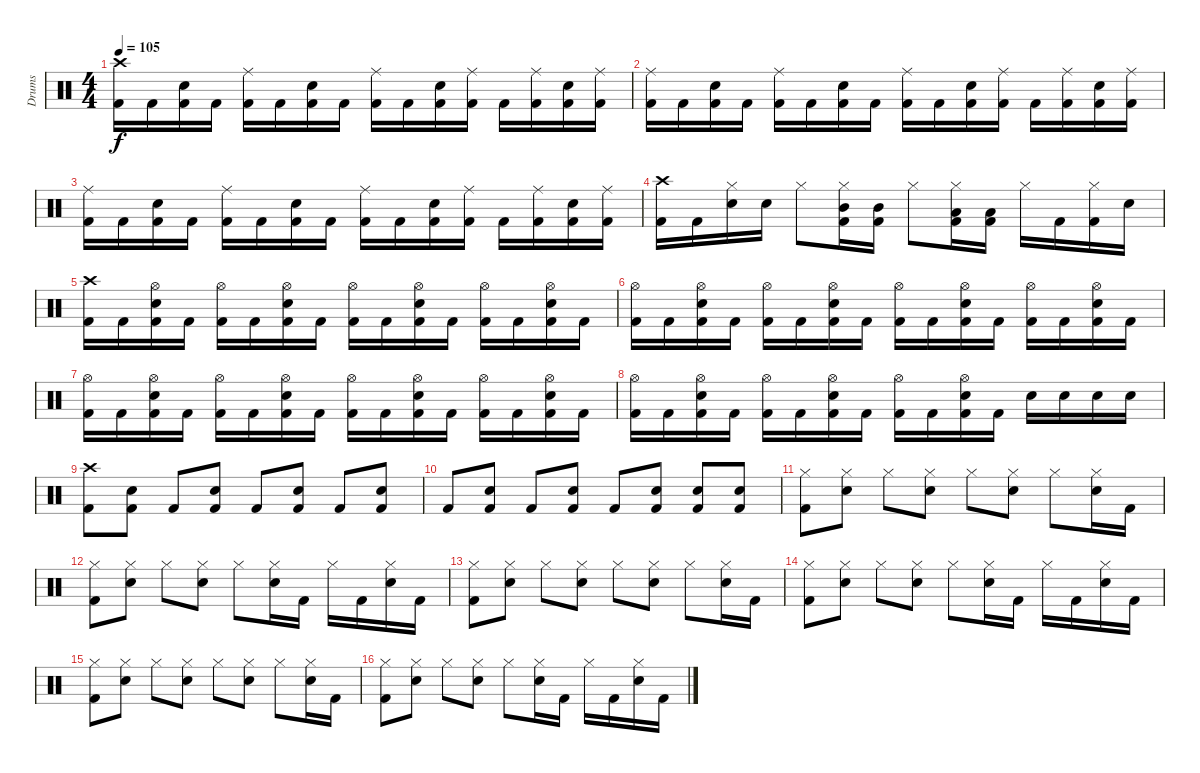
\track ("Drums" "Drums") {instrument percussion}
\staff {score}
\articulation defaults
\ts (4 4)
\tempo 105
\clef neutral
\ks c
("Crash high (hit)" "Kick (hit) 2").16{dy f} "Kick (hit) 2".16 ("Electric Snare (hit)" "Kick (hit) 2").16 "Kick (hit) 2".16 ("Ride (middle)" "Kick (hit) 2").16 "Kick (hit) 2".16 ("Electric Snare (hit)" "Kick (hit) 2").16 "Kick (hit) 2".16 ("Ride (middle)" "Kick (hit) 2").16 "Kick (hit) 2".16 ("Electric Snare (hit)" "Kick (hit) 2").16 ("Ride (middle)" "Kick (hit) 2").16 "Kick (hit) 2".16 ("Ride (middle)" "Kick (hit) 2").16 ("Electric Snare (hit)" "Kick (hit) 2").16 ("Ride (middle)" "Kick (hit) 2").16 |
("Ride (middle)" "Kick (hit) 2").16 "Kick (hit) 2".16 ("Electric Snare (hit)" "Kick (hit) 2").16 "Kick (hit) 2".16 ("Ride (middle)" "Kick (hit) 2").16 "Kick (hit) 2".16 ("Electric Snare (hit)" "Kick (hit) 2").16 "Kick (hit) 2".16 ("Ride (middle)" "Kick (hit) 2").16 "Kick (hit) 2".16 ("Electric Snare (hit)" "Kick (hit) 2").16 ("Ride (middle)" "Kick (hit) 2").16 "Kick (hit) 2".16 ("Ride (middle)" "Kick (hit) 2").16 ("Electric Snare (hit)" "Kick (hit) 2").16 ("Ride (middle)" "Kick (hit) 2").16 |
("Ride (middle)" "Kick (hit) 2").16 "Kick (hit) 2".16 ("Electric Snare (hit)" "Kick (hit) 2").16 "Kick (hit) 2".16 ("Ride (middle)" "Kick (hit) 2").16 "Kick (hit) 2".16 ("Electric Snare (hit)" "Kick (hit) 2").16 "Kick (hit) 2".16 ("Ride (middle)" "Kick (hit) 2").16 "Kick (hit) 2".16 ("Electric Snare (hit)" "Kick (hit) 2").16 ("Ride (middle)" "Kick (hit) 2").16 "Kick (hit) 2".16 ("Ride (middle)" "Kick (hit) 2").16 ("Electric Snare (hit)" "Kick (hit) 2").16 ("Ride (middle)" "Kick (hit) 2").16 |
("Crash high (hit)" "Kick (hit) 2").16 "Kick (hit) 2".16 ("Hi-Hat (closed)" "Electric Snare (hit)").16 "Electric Snare (hit)".16 "Hi-Hat (closed)".8 ("Hi-Hat (closed)" "Mid Tom (hit)" "Kick (hit) 2").16 ("Mid Tom (hit)" "Kick (hit) 2").16 "Hi-Hat (closed)".8 ("Hi-Hat (closed)" "Low Tom (hit)" "Kick (hit) 2").16 ("Low Tom (hit)" "Kick (hit) 2").16 "Hi-Hat (closed)".16 "Kick (hit) 2".16 ("Hi-Hat (closed)" "Kick (hit) 2").16 "Electric Snare (hit)".16 |
("Crash high (hit)" "Kick (hit) 2").16 "Kick (hit) 2".16 ("Hi-Hat (open)" "Electric Snare (hit)" "Kick (hit) 2").16 "Kick (hit) 2".16 ("Hi-Hat (open)" "Kick (hit) 2").16 "Kick (hit) 2".16 ("Hi-Hat (open)" "Electric Snare (hit)" "Kick (hit) 2").16 "Kick (hit) 2".16 ("Hi-Hat (open)" "Kick (hit) 2").16 "Kick (hit) 2".16 ("Hi-Hat (open)" "Electric Snare (hit)" "Kick (hit) 2").16 "Kick (hit) 2".16 ("Hi-Hat (open)" "Kick (hit) 2").16 "Kick (hit) 2".16 ("Hi-Hat (open)" "Electric Snare (hit)" "Kick (hit) 2").16 "Kick (hit) 2".16 |
("Hi-Hat (open)" "Kick (hit) 2").16 "Kick (hit) 2".16 ("Hi-Hat (open)" "Electric Snare (hit)" "Kick (hit) 2").16 "Kick (hit) 2".16 ("Hi-Hat (open)" "Kick (hit) 2").16 "Kick (hit) 2".16 ("Hi-Hat (open)" "Electric Snare (hit)" "Kick (hit) 2").16 "Kick (hit) 2".16 ("Hi-Hat (open)" "Kick (hit) 2").16 "Kick (hit) 2".16 ("Hi-Hat (open)" "Electric Snare (hit)" "Kick (hit) 2").16 "Kick (hit) 2".16 ("Hi-Hat (open)" "Kick (hit) 2").16 "Kick (hit) 2".16 ("Hi-Hat (open)" "Electric Snare (hit)" "Kick (hit) 2").16 "Kick (hit) 2".16 |
("Hi-Hat (open)" "Kick (hit) 2").16 "Kick (hit) 2".16 ("Hi-Hat (open)" "Electric Snare (hit)" "Kick (hit) 2").16 "Kick (hit) 2".16 ("Hi-Hat (open)" "Kick (hit) 2").16 "Kick (hit) 2".16 ("Hi-Hat (open)" "Electric Snare (hit)" "Kick (hit) 2").16 "Kick (hit) 2".16 ("Hi-Hat (open)" "Kick (hit) 2").16 "Kick (hit) 2".16 ("Hi-Hat (open)" "Electric Snare (hit)" "Kick (hit) 2").16 "Kick (hit) 2".16 ("Hi-Hat (open)" "Kick (hit) 2").16 "Kick (hit) 2".16 ("Hi-Hat (open)" "Electric Snare (hit)" "Kick (hit) 2").16 "Kick (hit) 2".16 |
("Hi-Hat (open)" "Kick (hit) 2").16 "Kick (hit) 2".16 ("Hi-Hat (open)" "Electric Snare (hit)" "Kick (hit) 2").16 "Kick (hit) 2".16 ("Hi-Hat (open)" "Kick (hit) 2").16 "Kick (hit) 2".16 ("Hi-Hat (open)" "Electric Snare (hit)" "Kick (hit) 2").16 "Kick (hit) 2".16 ("Hi-Hat (open)" "Kick (hit) 2").16 "Kick (hit) 2".16 ("Hi-Hat (open)" "Electric Snare (hit)" "Kick (hit) 2").16 "Kick (hit) 2".16 "Electric Snare (hit)".16 "Electric Snare (hit)".16 "Electric Snare (hit)".16 "Electric Snare (hit)".16 |
("Crash high (hit)" "Kick (hit) 2").8 ("Electric Snare (hit)" "Kick (hit) 2").8 "Kick (hit) 2".8 ("Electric Snare (hit)" "Kick (hit) 2").8 "Kick (hit) 2".8 ("Electric Snare (hit)" "Kick (hit) 2").8 "Kick (hit) 2".8 ("Electric Snare (hit)" "Kick (hit) 2").8 |
"Kick (hit) 2".8 ("Electric Snare (hit)" "Kick (hit) 2").8 "Kick (hit) 2".8 ("Electric Snare (hit)" "Kick (hit) 2").8 "Kick (hit) 2".8 ("Electric Snare (hit)" "Kick (hit) 2").8 ("Electric Snare (hit)" "Kick (hit) 2").8 ("Electric Snare (hit)" "Kick (hit) 2").8 |
("Hi-Hat (closed)" "Kick (hit) 2").8 ("Hi-Hat (closed)" "Electric Snare (hit)").8 "Hi-Hat (closed)".8 ("Hi-Hat (closed)" "Electric Snare (hit)").8 "Hi-Hat (closed)".8 ("Hi-Hat (closed)" "Electric Snare (hit)").8 "Hi-Hat (closed)".8 ("Hi-Hat (closed)" "Electric Snare (hit)").16 "Kick (hit) 2".16 |
("Hi-Hat (closed)" "Kick (hit) 2").8 ("Hi-Hat (closed)" "Electric Snare (hit)").8 "Hi-Hat (closed)".8 ("Hi-Hat (closed)" "Electric Snare (hit)").8 "Hi-Hat (closed)".8 ("Hi-Hat (closed)" "Electric Snare (hit)").16 "Kick (hit) 2".16 "Hi-Hat (closed)".16 "Kick (hit) 2".16 ("Hi-Hat (closed)" "Electric Snare (hit)").16 "Kick (hit) 2".16 |
("Hi-Hat (closed)" "Kick (hit) 2").8 ("Hi-Hat (closed)" "Electric Snare (hit)").8 "Hi-Hat (closed)".8 ("Hi-Hat (closed)" "Electric Snare (hit)").8 "Hi-Hat (closed)".8 ("Hi-Hat (closed)" "Electric Snare (hit)").8 "Hi-Hat (closed)".8 ("Hi-Hat (closed)" "Electric Snare (hit)").16 "Kick (hit) 2".16 |
("Hi-Hat (closed)" "Kick (hit) 2").8 ("Hi-Hat (closed)" "Electric Snare (hit)").8 "Hi-Hat (closed)".8 ("Hi-Hat (closed)" "Electric Snare (hit)").8 "Hi-Hat (closed)".8 ("Hi-Hat (closed)" "Electric Snare (hit)").16 "Kick (hit) 2".16 "Hi-Hat (closed)".16 "Kick (hit) 2".16 ("Hi-Hat (closed)" "Electric Snare (hit)").16 "Kick (hit) 2".16 |
("Hi-Hat (closed)" "Kick (hit) 2").8 ("Hi-Hat (closed)" "Electric Snare (hit)").8 "Hi-Hat (closed)".8 ("Hi-Hat (closed)" "Electric Snare (hit)").8 "Hi-Hat (closed)".8 ("Hi-Hat (closed)" "Electric Snare (hit)").8 "Hi-Hat (closed)".8 ("Hi-Hat (closed)" "Electric Snare (hit)").16 "Kick (hit) 2".16 |
("Hi-Hat (closed)" "Kick (hit) 2").8 ("Hi-Hat (closed)" "Electric Snare (hit)").8 "Hi-Hat (closed)".8 ("Hi-Hat (closed)" "Electric Snare (hit)").8 "Hi-Hat (closed)".8 ("Hi-Hat (closed)" "Electric Snare (hit)").16 "Kick (hit) 2".16 "Hi-Hat (closed)".16 "Kick (hit) 2".16 ("Hi-Hat (closed)" "Electric Snare (hit)").16 "Kick (hit) 2".16
